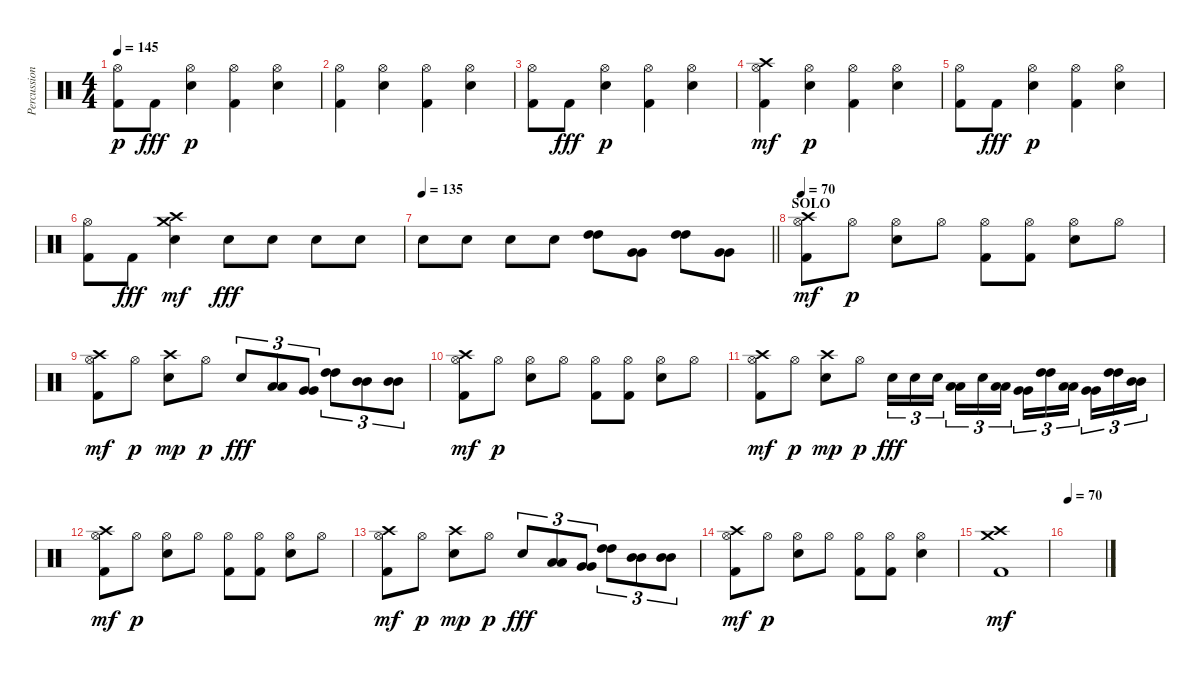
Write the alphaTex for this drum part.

\track ("Percussions" "Percussion") {instrument percussion}
\staff {score}
\articulation defaults
\ts (4 4)
\tempo 145
\clef neutral
\ks c
("Kick (hit) 2" "Hi-Hat (open)").8{dy p} "Kick (hit) 2".8{dy fff} ("Snare (hit) 2" "Hi-Hat (open)").4{dy p} ("Kick (hit) 2" "Hi-Hat (open)").4 ("Snare (hit) 2" "Hi-Hat (open)").4 |
("Kick (hit) 2" "Hi-Hat (open)").4 ("Snare (hit) 2" "Hi-Hat (open)").4 ("Kick (hit) 2" "Hi-Hat (open)").4 ("Snare (hit) 2" "Hi-Hat (open)").4 |
("Kick (hit) 2" "Hi-Hat (open)").8 "Kick (hit) 2".8{dy fff} ("Snare (hit) 2" "Hi-Hat (open)").4{dy p} ("Kick (hit) 2" "Hi-Hat (open)").4 ("Snare (hit) 2" "Hi-Hat (open)").4 |
("Kick (hit) 2" "Hi-Hat (open)" "Crash high (hit)").4{dy mf} ("Snare (hit) 2" "Hi-Hat (open)").4{dy p} ("Kick (hit) 2" "Hi-Hat (open)").4 ("Snare (hit) 2" "Hi-Hat (open)").4 |
("Kick (hit) 2" "Hi-Hat (open)").8 "Kick (hit) 2".8{dy fff} ("Snare (hit) 2" "Hi-Hat (open)").4{dy p} ("Kick (hit) 2" "Hi-Hat (open)").4 ("Snare (hit) 2" "Hi-Hat (open)").4 |
("Kick (hit) 2" "Hi-Hat (open)").8 "Kick (hit) 2".8{dy fff} ("Snare (hit) 2" "Crash high (hit)" "Crash medium (hit)").4{dy mf} "Snare (hit) 2".8{dy fff} "Snare (hit) 2".8 "Snare (hit) 2".8 "Snare (hit) 2".8 |
\tempo 135
\barLineRight lightlight "Snare (hit) 2".8 "Snare (hit) 2".8 "Snare (hit) 2".8 "Snare (hit) 2".8
("High Tom (hit)" "High Tom (hit)").8 ("Very Low Tom (hit)" "Very Low Tom (hit)").8 ("High Tom (hit)" "High Tom (hit)").8 ("Very Low Tom (hit)" "Very Low Tom (hit)").8 |
\section ("" "SOLO")
\tempo 70
("Kick (hit) 2" "Hi-Hat (open)" "Crash high (hit)").8{dy mf} "Hi-Hat (open)".8{dy p} ("Snare (hit) 2" "Hi-Hat (open)").8 "Hi-Hat (open)".8 ("Kick (hit) 2" "Hi-Hat (open)").8 ("Kick (hit) 2" "Hi-Hat (open)").8 ("Snare (hit) 2" "Hi-Hat (open)").8 "Hi-Hat (open)".8 |
("Kick (hit) 2" "Hi-Hat (open)" "Crash high (hit)").8{dy mf} "Hi-Hat (open)".8{dy p} ("Snare (hit) 2" "Crash high (hit)").8{dy mp} "Hi-Hat (open)".8{dy p} "Snare (hit) 2".8{tu (3 2) dy fff} ("Low Tom (hit)" "Low Tom (hit)").8{tu (3 2)} ("Very Low Tom (hit)" "Very Low Tom (hit)").8{tu (3 2)} ("High Tom (hit)" "High Tom (hit)").8{tu (3 2)} ("Mid Tom (hit)" "Mid Tom (hit)").8{tu (3 2)} ("Mid Tom (hit)" "Mid Tom (hit)").8{tu (3 2)} |
("Kick (hit) 2" "Hi-Hat (open)" "Crash high (hit)").8{dy mf} "Hi-Hat (open)".8{dy p} ("Snare (hit) 2" "Hi-Hat (open)").8 "Hi-Hat (open)".8 ("Kick (hit) 2" "Hi-Hat (open)").8 ("Kick (hit) 2" "Hi-Hat (open)").8 ("Snare (hit) 2" "Hi-Hat (open)").8 "Hi-Hat (open)".8 |
("Kick (hit) 2" "Hi-Hat (open)" "Crash high (hit)").8{dy mf} "Hi-Hat (open)".8{dy p} ("Snare (hit) 2" "Crash high (hit)").8{dy mp} "Hi-Hat (open)".8{dy p} "Snare (hit) 2".16{tu (3 2) dy fff} "Snare (hit) 2".16{tu (3 2)} "Snare (hit) 2".16{tu (3 2) beam splitsecondary} ("Low Tom (hit)" "Low Tom (hit)").16{tu (3 2)} "Snare (hit) 2".16{tu (3 2)} ("Low Tom (hit)" "Low Tom (hit)").16{tu (3 2)} ("Very Low Tom (hit)" "Very Low Tom (hit)").16{tu (3 2)} ("High Tom (hit)" "High Tom (hit)").16{tu (3 2)} ("Low Tom (hit)" "Low Tom (hit)").16{tu (3 2) beam splitsecondary} ("Very Low Tom (hit)" "Very Low Tom (hit)").16{tu (3 2)} ("High Tom (hit)" "High Tom (hit)").16{tu (3 2)} ("Mid Tom (hit)" "Mid Tom (hit)").16{tu (3 2)} |
("Kick (hit) 2" "Hi-Hat (open)" "Crash high (hit)").8{dy mf} "Hi-Hat (open)".8{dy p} ("Snare (hit) 2" "Hi-Hat (open)").8 "Hi-Hat (open)".8 ("Kick (hit) 2" "Hi-Hat (open)").8 ("Kick (hit) 2" "Hi-Hat (open)").8 ("Snare (hit) 2" "Hi-Hat (open)").8 "Hi-Hat (open)".8 |
("Kick (hit) 2" "Hi-Hat (open)" "Crash high (hit)").8{dy mf} "Hi-Hat (open)".8{dy p} ("Snare (hit) 2" "Crash high (hit)").8{dy mp} "Hi-Hat (open)".8{dy p} "Snare (hit) 2".8{tu (3 2) dy fff} ("Low Tom (hit)" "Low Tom (hit)").8{tu (3 2)} ("Very Low Tom (hit)" "Very Low Tom (hit)").8{tu (3 2)} ("High Tom (hit)" "High Tom (hit)").8{tu (3 2)} ("Mid Tom (hit)" "Mid Tom (hit)").8{tu (3 2)} ("Mid Tom (hit)" "Mid Tom (hit)").8{tu (3 2)} |
("Kick (hit) 2" "Hi-Hat (open)" "Crash high (hit)").8{dy mf} "Hi-Hat (open)".8{dy p} ("Snare (hit) 2" "Hi-Hat (open)").8 "Hi-Hat (open)".8 ("Kick (hit) 2" "Hi-Hat (open)").8 ("Kick (hit) 2" "Hi-Hat (open)").8 ("Snare (hit) 2" "Hi-Hat (open)").4 |
("Kick (hit) 2" "Crash high (hit)" "Crash medium (hit)").1{dy mf} |
\tempo 70
